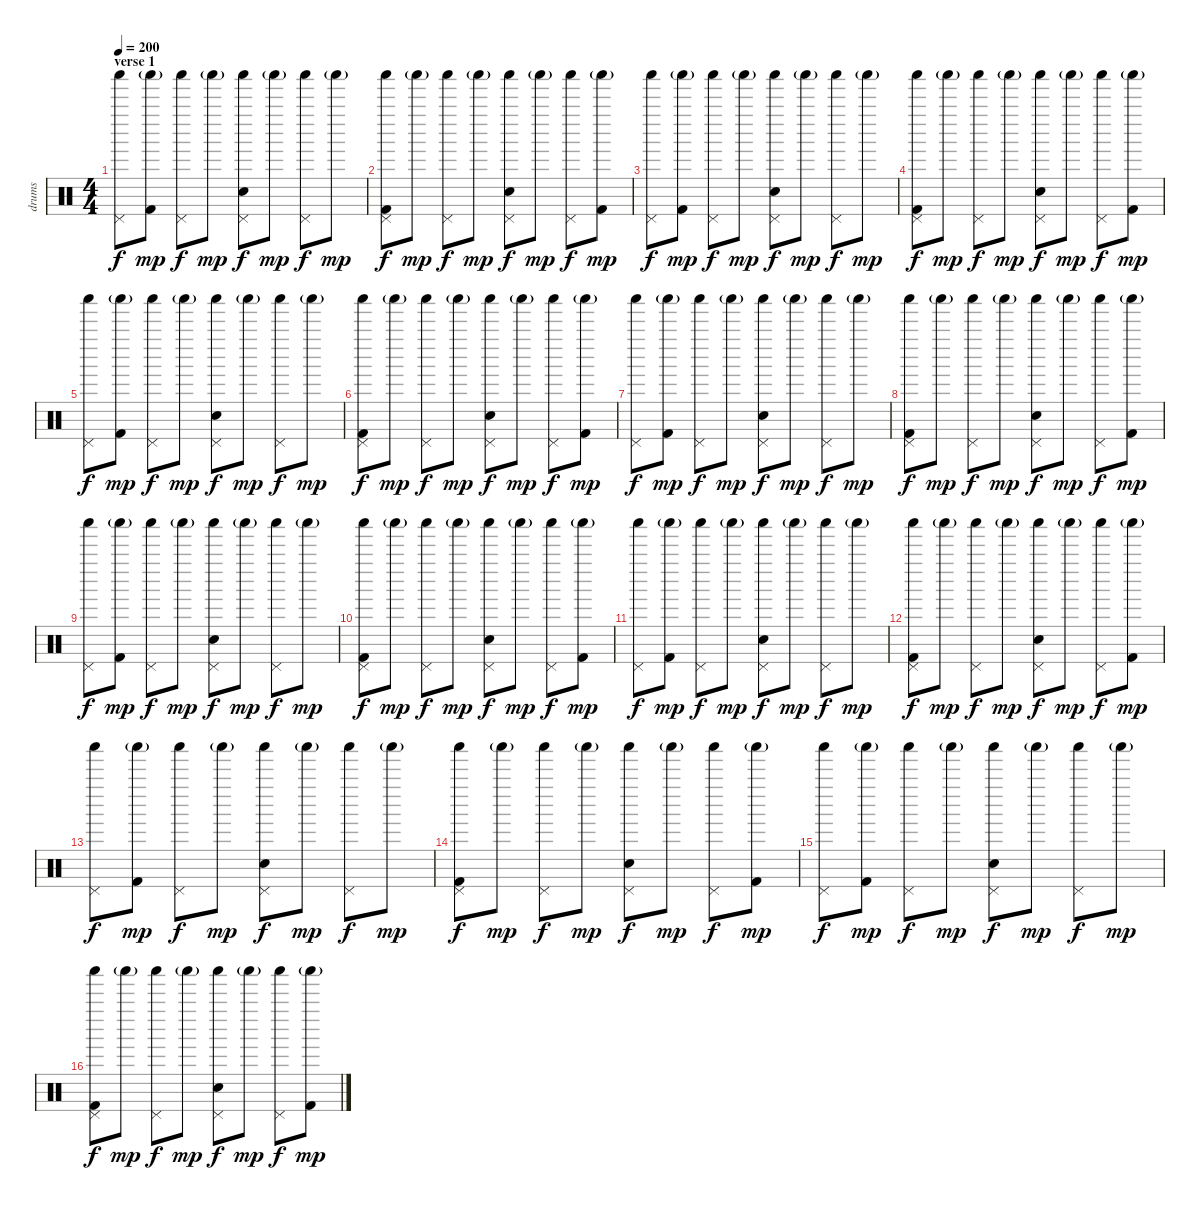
\track ("drums" "drums") {instrument percussion}
\staff {score}
\articulation defaults
\ts (4 4)
\section ("" "verse 1")
\tempo 200
\clef neutral
\ks c
("Shaker (hit)" "Pedal Hi-Hat (hit)").8{dy f} ("Kick (hit) 2" "Shaker (hit)"{g}).8{dy mp} ("Shaker (hit)" "Pedal Hi-Hat (hit)").8{dy f} "Shaker (hit)"{g}.8{dy mp} ("Electric Snare (hit)" "Shaker (hit)" "Pedal Hi-Hat (hit)").8{dy f} "Shaker (hit)"{g}.8{dy mp} ("Shaker (hit)" "Pedal Hi-Hat (hit)").8{dy f} "Shaker (hit)"{g}.8{dy mp} |
("Kick (hit) 2" "Shaker (hit)" "Pedal Hi-Hat (hit)").8{dy f} "Shaker (hit)"{g}.8{dy mp} ("Shaker (hit)" "Pedal Hi-Hat (hit)").8{dy f} "Shaker (hit)"{g}.8{dy mp} ("Electric Snare (hit)" "Shaker (hit)" "Pedal Hi-Hat (hit)").8{dy f} "Shaker (hit)"{g}.8{dy mp} ("Shaker (hit)" "Pedal Hi-Hat (hit)").8{dy f} ("Kick (hit) 2" "Shaker (hit)"{g}).8{dy mp} |
("Shaker (hit)" "Pedal Hi-Hat (hit)").8{dy f} ("Kick (hit) 2" "Shaker (hit)"{g}).8{dy mp} ("Shaker (hit)" "Pedal Hi-Hat (hit)").8{dy f} "Shaker (hit)"{g}.8{dy mp} ("Electric Snare (hit)" "Shaker (hit)" "Pedal Hi-Hat (hit)").8{dy f} "Shaker (hit)"{g}.8{dy mp} ("Shaker (hit)" "Pedal Hi-Hat (hit)").8{dy f} "Shaker (hit)"{g}.8{dy mp} |
("Kick (hit) 2" "Shaker (hit)" "Pedal Hi-Hat (hit)").8{dy f} "Shaker (hit)"{g}.8{dy mp} ("Shaker (hit)" "Pedal Hi-Hat (hit)").8{dy f} "Shaker (hit)"{g}.8{dy mp} ("Electric Snare (hit)" "Shaker (hit)" "Pedal Hi-Hat (hit)").8{dy f} "Shaker (hit)"{g}.8{dy mp} ("Shaker (hit)" "Pedal Hi-Hat (hit)").8{dy f} ("Kick (hit) 2" "Shaker (hit)"{g}).8{dy mp} |
("Shaker (hit)" "Pedal Hi-Hat (hit)").8{dy f} ("Kick (hit) 2" "Shaker (hit)"{g}).8{dy mp} ("Shaker (hit)" "Pedal Hi-Hat (hit)").8{dy f} "Shaker (hit)"{g}.8{dy mp} ("Electric Snare (hit)" "Shaker (hit)" "Pedal Hi-Hat (hit)").8{dy f} "Shaker (hit)"{g}.8{dy mp} ("Shaker (hit)" "Pedal Hi-Hat (hit)").8{dy f} "Shaker (hit)"{g}.8{dy mp} |
("Kick (hit) 2" "Shaker (hit)" "Pedal Hi-Hat (hit)").8{dy f} "Shaker (hit)"{g}.8{dy mp} ("Shaker (hit)" "Pedal Hi-Hat (hit)").8{dy f} "Shaker (hit)"{g}.8{dy mp} ("Electric Snare (hit)" "Shaker (hit)" "Pedal Hi-Hat (hit)").8{dy f} "Shaker (hit)"{g}.8{dy mp} ("Shaker (hit)" "Pedal Hi-Hat (hit)").8{dy f} ("Kick (hit) 2" "Shaker (hit)"{g}).8{dy mp} |
("Shaker (hit)" "Pedal Hi-Hat (hit)").8{dy f} ("Kick (hit) 2" "Shaker (hit)"{g}).8{dy mp} ("Shaker (hit)" "Pedal Hi-Hat (hit)").8{dy f} "Shaker (hit)"{g}.8{dy mp} ("Electric Snare (hit)" "Shaker (hit)" "Pedal Hi-Hat (hit)").8{dy f} "Shaker (hit)"{g}.8{dy mp} ("Shaker (hit)" "Pedal Hi-Hat (hit)").8{dy f} "Shaker (hit)"{g}.8{dy mp} |
("Kick (hit) 2" "Shaker (hit)" "Pedal Hi-Hat (hit)").8{dy f} "Shaker (hit)"{g}.8{dy mp} ("Shaker (hit)" "Pedal Hi-Hat (hit)").8{dy f} "Shaker (hit)"{g}.8{dy mp} ("Electric Snare (hit)" "Shaker (hit)" "Pedal Hi-Hat (hit)").8{dy f} "Shaker (hit)"{g}.8{dy mp} ("Shaker (hit)" "Pedal Hi-Hat (hit)").8{dy f} ("Kick (hit) 2" "Shaker (hit)"{g}).8{dy mp} |
("Shaker (hit)" "Pedal Hi-Hat (hit)").8{dy f} ("Kick (hit) 2" "Shaker (hit)"{g}).8{dy mp} ("Shaker (hit)" "Pedal Hi-Hat (hit)").8{dy f} "Shaker (hit)"{g}.8{dy mp} ("Electric Snare (hit)" "Shaker (hit)" "Pedal Hi-Hat (hit)").8{dy f} "Shaker (hit)"{g}.8{dy mp} ("Shaker (hit)" "Pedal Hi-Hat (hit)").8{dy f} "Shaker (hit)"{g}.8{dy mp} |
("Kick (hit) 2" "Shaker (hit)" "Pedal Hi-Hat (hit)").8{dy f} "Shaker (hit)"{g}.8{dy mp} ("Shaker (hit)" "Pedal Hi-Hat (hit)").8{dy f} "Shaker (hit)"{g}.8{dy mp} ("Electric Snare (hit)" "Shaker (hit)" "Pedal Hi-Hat (hit)").8{dy f} "Shaker (hit)"{g}.8{dy mp} ("Shaker (hit)" "Pedal Hi-Hat (hit)").8{dy f} ("Kick (hit) 2" "Shaker (hit)"{g}).8{dy mp} |
("Shaker (hit)" "Pedal Hi-Hat (hit)").8{dy f} ("Kick (hit) 2" "Shaker (hit)"{g}).8{dy mp} ("Shaker (hit)" "Pedal Hi-Hat (hit)").8{dy f} "Shaker (hit)"{g}.8{dy mp} ("Electric Snare (hit)" "Shaker (hit)" "Pedal Hi-Hat (hit)").8{dy f} "Shaker (hit)"{g}.8{dy mp} ("Shaker (hit)" "Pedal Hi-Hat (hit)").8{dy f} "Shaker (hit)"{g}.8{dy mp} |
("Kick (hit) 2" "Shaker (hit)" "Pedal Hi-Hat (hit)").8{dy f} "Shaker (hit)"{g}.8{dy mp} ("Shaker (hit)" "Pedal Hi-Hat (hit)").8{dy f} "Shaker (hit)"{g}.8{dy mp} ("Electric Snare (hit)" "Shaker (hit)" "Pedal Hi-Hat (hit)").8{dy f} "Shaker (hit)"{g}.8{dy mp} ("Shaker (hit)" "Pedal Hi-Hat (hit)").8{dy f} ("Kick (hit) 2" "Shaker (hit)"{g}).8{dy mp} |
("Shaker (hit)" "Pedal Hi-Hat (hit)").8{dy f} ("Kick (hit) 2" "Shaker (hit)"{g}).8{dy mp} ("Shaker (hit)" "Pedal Hi-Hat (hit)").8{dy f} "Shaker (hit)"{g}.8{dy mp} ("Electric Snare (hit)" "Shaker (hit)" "Pedal Hi-Hat (hit)").8{dy f} "Shaker (hit)"{g}.8{dy mp} ("Shaker (hit)" "Pedal Hi-Hat (hit)").8{dy f} "Shaker (hit)"{g}.8{dy mp} |
("Kick (hit) 2" "Shaker (hit)" "Pedal Hi-Hat (hit)").8{dy f} "Shaker (hit)"{g}.8{dy mp} ("Shaker (hit)" "Pedal Hi-Hat (hit)").8{dy f} "Shaker (hit)"{g}.8{dy mp} ("Electric Snare (hit)" "Shaker (hit)" "Pedal Hi-Hat (hit)").8{dy f} "Shaker (hit)"{g}.8{dy mp} ("Shaker (hit)" "Pedal Hi-Hat (hit)").8{dy f} ("Kick (hit) 2" "Shaker (hit)"{g}).8{dy mp} |
("Shaker (hit)" "Pedal Hi-Hat (hit)").8{dy f} ("Kick (hit) 2" "Shaker (hit)"{g}).8{dy mp} ("Shaker (hit)" "Pedal Hi-Hat (hit)").8{dy f} "Shaker (hit)"{g}.8{dy mp} ("Electric Snare (hit)" "Shaker (hit)" "Pedal Hi-Hat (hit)").8{dy f} "Shaker (hit)"{g}.8{dy mp} ("Shaker (hit)" "Pedal Hi-Hat (hit)").8{dy f} "Shaker (hit)"{g}.8{dy mp} |
("Kick (hit) 2" "Shaker (hit)" "Pedal Hi-Hat (hit)").8{dy f} "Shaker (hit)"{g}.8{dy mp} ("Shaker (hit)" "Pedal Hi-Hat (hit)").8{dy f} "Shaker (hit)"{g}.8{dy mp} ("Electric Snare (hit)" "Shaker (hit)" "Pedal Hi-Hat (hit)").8{dy f} "Shaker (hit)"{g}.8{dy mp} ("Shaker (hit)" "Pedal Hi-Hat (hit)").8{dy f} ("Kick (hit) 2" "Shaker (hit)"{g}).8{dy mp}
